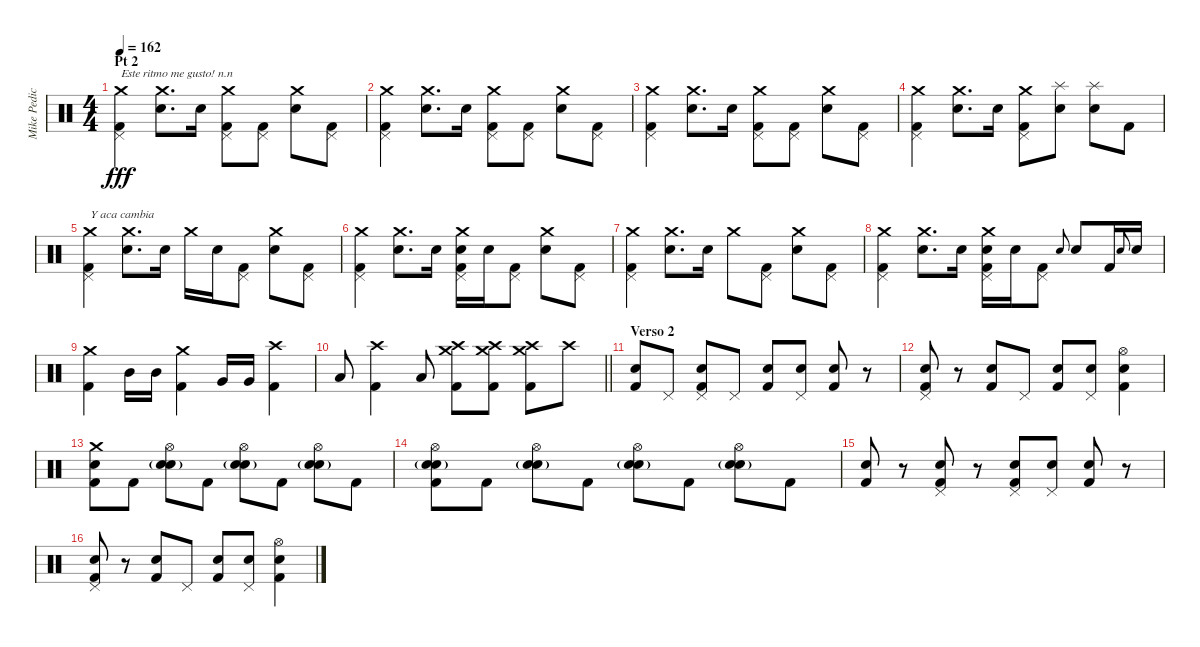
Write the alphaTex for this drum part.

\track ("Mike Pedicone [Drums]" "Mike Pedic") {instrument percussion}
\staff
\articulation defaults
\ts (4 4)
\section ("" "Pt 2")
\tempo 162
\clef neutral
\ks c
("Crash medium (hit)" "Pedal Hi-Hat (hit)" "Kick (hit) 2").4{txt "Este ritmo me gusto! n.n" dy fff} ("Crash medium (hit)" "Electric Snare (hit)").8{d} "Electric Snare (hit)".16 ("Crash medium (hit)" "Pedal Hi-Hat (hit)" "Kick (hit) 2").8 ("Pedal Hi-Hat (hit)" "Kick (hit) 2").8 ("Crash medium (hit)" "Electric Snare (hit)").8 ("Pedal Hi-Hat (hit)" "Kick (hit) 2").8 |
("Crash medium (hit)" "Pedal Hi-Hat (hit)" "Kick (hit) 2").4 ("Crash medium (hit)" "Electric Snare (hit)").8{d} "Electric Snare (hit)".16 ("Crash medium (hit)" "Pedal Hi-Hat (hit)" "Kick (hit) 2").8 ("Pedal Hi-Hat (hit)" "Kick (hit) 2").8 ("Crash medium (hit)" "Electric Snare (hit)").8 ("Pedal Hi-Hat (hit)" "Kick (hit) 2").8 |
("Crash medium (hit)" "Pedal Hi-Hat (hit)" "Kick (hit) 2").4 ("Crash medium (hit)" "Electric Snare (hit)").8{d} "Electric Snare (hit)".16 ("Crash medium (hit)" "Pedal Hi-Hat (hit)" "Kick (hit) 2").8 ("Pedal Hi-Hat (hit)" "Kick (hit) 2").8 ("Crash medium (hit)" "Electric Snare (hit)").8 ("Pedal Hi-Hat (hit)" "Kick (hit) 2").8 |
("Crash medium (hit)" "Pedal Hi-Hat (hit)" "Kick (hit) 2").4 ("Crash medium (hit)" "Electric Snare (hit)").8{d} "Electric Snare (hit)".16 ("Crash medium (hit)" "Pedal Hi-Hat (hit)" "Kick (hit) 2").8 ("Splash (hit)" "Electric Snare (hit)").8 ("Splash (hit)" "Electric Snare (hit)").8 "Kick (hit) 2".8 |
("Crash medium (hit)" "Pedal Hi-Hat (hit)" "Kick (hit) 2").4{txt "Y aca cambia"} ("Crash medium (hit)" "Electric Snare (hit)").8{d} "Electric Snare (hit)".16 "Crash medium (hit)".16 "Electric Snare (hit)".16 ("Pedal Hi-Hat (hit)" "Kick (hit) 2").8 ("Crash medium (hit)" "Electric Snare (hit)").8 ("Pedal Hi-Hat (hit)" "Kick (hit) 2").8 |
("Crash medium (hit)" "Pedal Hi-Hat (hit)" "Kick (hit) 2").4 ("Crash medium (hit)" "Electric Snare (hit)").8{d} "Electric Snare (hit)".16 ("Crash medium (hit)" "Electric Snare (hit)" "Pedal Hi-Hat (hit)" "Kick (hit) 2").16 "Electric Snare (hit)".16 ("Pedal Hi-Hat (hit)" "Kick (hit) 2").8 ("Crash medium (hit)" "Electric Snare (hit)").8 ("Pedal Hi-Hat (hit)" "Kick (hit) 2").8 |
("Crash medium (hit)" "Pedal Hi-Hat (hit)" "Kick (hit) 2").4 ("Crash medium (hit)" "Electric Snare (hit)").8{d} "Electric Snare (hit)".16 "Crash medium (hit)".8 ("Pedal Hi-Hat (hit)" "Kick (hit) 2").8 ("Crash medium (hit)" "Electric Snare (hit)").8 ("Pedal Hi-Hat (hit)" "Kick (hit) 2").8 |
("Crash medium (hit)" "Pedal Hi-Hat (hit)" "Kick (hit) 2").4 ("Crash medium (hit)" "Electric Snare (hit)").8{d} "Electric Snare (hit)".16 ("Crash medium (hit)" "Electric Snare (hit)" "Pedal Hi-Hat (hit)" "Kick (hit) 2").16 "Electric Snare (hit)".16 ("Pedal Hi-Hat (hit)" "Kick (hit) 2").8 "Electric Snare (hit)".8{gr onbeat} "Electric Snare (hit)".8 "Kick (hit) 2".16 "Electric Snare (hit)".8{gr onbeat} "Electric Snare (hit)".16 |
("Crash medium (hit)" "Kick (hit) 2").4 "Mid Tom (hit)".16 "Mid Tom (hit)".16 ("Crash medium (hit)" "Kick (hit) 2").4 "Very Low Tom (hit)".16 "Very Low Tom (hit)".16 ("Crash high (hit)" "Kick (hit) 2").4 |
\barLineRight lightlight "Low Floor Tom (hit)".8
("Crash high (hit)" "Kick (hit) 2").4 "Low Floor Tom (hit)".8 ("Crash high (hit)" "Crash medium (hit)" "Kick (hit) 2").8 ("Crash high (hit)" "Crash medium (hit)" "Kick (hit) 2").8 ("Crash high (hit)" "Crash medium (hit)" "Kick (hit) 2").8 "Crash high (hit)".8 |
\section ("" "Verso 2")
("Hand Clap (hit)" "Kick (hit) 2").8 "Pedal Hi-Hat (hit)".8 ("Hand Clap (hit)" "Pedal Hi-Hat (hit)" "Kick (hit) 2").8 "Pedal Hi-Hat (hit)".8 ("Hand Clap (hit)" "Kick (hit) 2").8 ("Hand Clap (hit)" "Pedal Hi-Hat (hit)").8 ("Hand Clap (hit)" "Kick (hit) 2").8 r.8 |
("Hand Clap (hit)" "Pedal Hi-Hat (hit)" "Kick (hit) 2").8 r.8 ("Hand Clap (hit)" "Kick (hit) 2").8 "Pedal Hi-Hat (hit)".8 ("Hand Clap (hit)" "Kick (hit) 2").8 ("Hand Clap (hit)" "Pedal Hi-Hat (hit)").8 ("Hand Clap (hit)" "Hi-Hat (open)" "Kick (hit) 2").4 |
("Crash medium (hit)" "Electric Snare (hit)" "Kick (hit) 2").8 "Kick (hit) 2".8 ("Hi-Hat (open)" "Electric Snare (hit)" "Hand Clap (hit)"{g}).8 "Kick (hit) 2".8 ("Hi-Hat (open)" "Electric Snare (hit)" "Hand Clap (hit)"{g}).8 "Kick (hit) 2".8 ("Hi-Hat (open)" "Electric Snare (hit)" "Hand Clap (hit)"{g}).8 "Kick (hit) 2".8 |
("Hi-Hat (open)" "Electric Snare (hit)" "Hand Clap (hit)"{g} "Kick (hit) 2").8 "Kick (hit) 2".8 ("Hi-Hat (open)" "Electric Snare (hit)" "Hand Clap (hit)"{g}).8 "Kick (hit) 2".8 ("Hi-Hat (open)" "Electric Snare (hit)" "Hand Clap (hit)"{g}).8 "Kick (hit) 2".8 ("Hi-Hat (open)" "Electric Snare (hit)" "Hand Clap (hit)"{g}).8 "Kick (hit) 2".8 |
("Hand Clap (hit)" "Kick (hit) 2").8 r.8 ("Hand Clap (hit)" "Pedal Hi-Hat (hit)" "Kick (hit) 2").8 r.8 ("Hand Clap (hit)" "Pedal Hi-Hat (hit)" "Kick (hit) 2").8 ("Hand Clap (hit)" "Pedal Hi-Hat (hit)").8 ("Hand Clap (hit)" "Kick (hit) 2").8 r.8 |
("Hand Clap (hit)" "Pedal Hi-Hat (hit)" "Kick (hit) 2").8 r.8 ("Hand Clap (hit)" "Kick (hit) 2").8 "Pedal Hi-Hat (hit)".8 ("Hand Clap (hit)" "Kick (hit) 2").8 ("Hand Clap (hit)" "Pedal Hi-Hat (hit)").8 ("Hand Clap (hit)" "Hi-Hat (open)" "Kick (hit) 2").4
